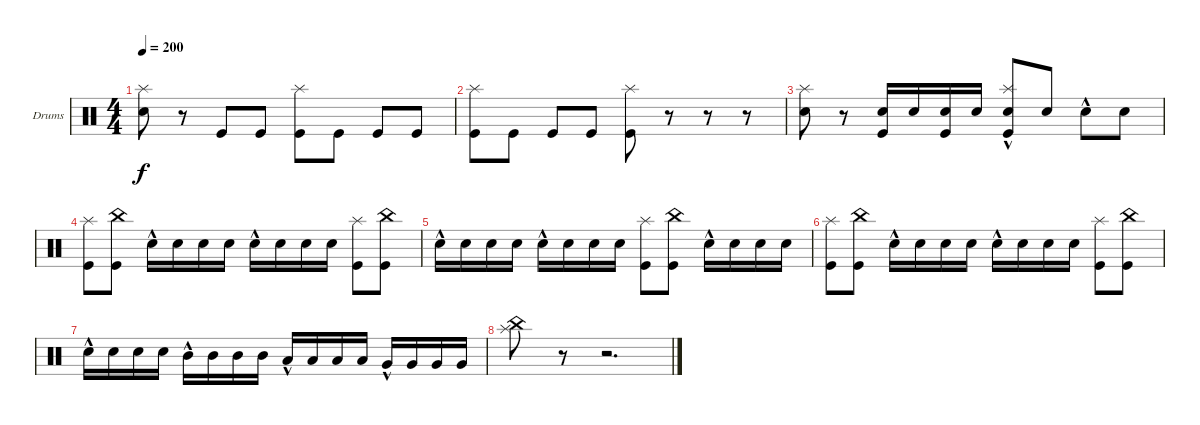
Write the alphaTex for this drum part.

\defaultSystemsLayout 4
\bracketExtendMode groupsimilarinstruments
\firstSystemTrackNameOrientation horizontal
\otherSystemsTrackNameOrientation horizontal
\track ("Drumkit" "Drums") {instrument percussion}
\staff {score}
\articulation defaults
\ts (4 4)
\tempo 200
\clef neutral
\ks c
("Snare (hit) 2" "Splash (hit)").8{dy f} r.8 "Kick (hit)".8 "Kick (hit)".8 ("Kick (hit)" "Splash (hit)").8 "Kick (hit)".8 "Kick (hit)".8 "Kick (hit)".8 |
("Kick (hit)" "Splash (hit)").8 "Kick (hit)".8 "Kick (hit)".8 "Kick (hit)".8 ("Kick (hit)" "Splash (hit)").8 r.8 r.8 r.8 |
("Snare (hit) 2" "Splash (hit)").8 r.8 ("Kick (hit)" "Snare (hit) 2").16 "Snare (hit) 2".16 ("Kick (hit)" "Snare (hit) 2").16 "Snare (hit) 2".16 ("Kick (hit)" "Splash (hit)" "Snare (hit) 2"{hac}).8 "Snare (hit) 2".8 "Snare (hit) 2"{hac}.8 "Snare (hit) 2".8 |
("Kick (hit)" "Splash (hit)").8 ("Kick (hit)" "China (hit)").8 "Snare (hit) 2"{hac}.16 "Snare (hit) 2".16 "Snare (hit) 2".16 "Snare (hit) 2".16 "Snare (hit) 2"{hac}.16 "Snare (hit) 2".16 "Snare (hit) 2".16 "Snare (hit) 2".16 ("Kick (hit)" "Splash (hit)").8 ("Kick (hit)" "China (hit)").8 |
"Snare (hit) 2"{hac}.16 "Snare (hit) 2".16 "Snare (hit) 2".16 "Snare (hit) 2".16 "Snare (hit) 2"{hac}.16 "Snare (hit) 2".16 "Snare (hit) 2".16 "Snare (hit) 2".16 ("Kick (hit)" "Splash (hit)").8 ("Kick (hit)" "China (hit)").8 "Snare (hit) 2"{hac}.16 "Snare (hit) 2".16 "Snare (hit) 2".16 "Snare (hit) 2".16 |
("Kick (hit)" "Splash (hit)").8 ("Kick (hit)" "China (hit)").8 "Snare (hit) 2"{hac}.16 "Snare (hit) 2".16 "Snare (hit) 2".16 "Snare (hit) 2".16 "Snare (hit) 2"{hac}.16 "Snare (hit) 2".16 "Snare (hit) 2".16 "Snare (hit) 2".16 ("Kick (hit)" "Splash (hit)").8 ("Kick (hit)" "China (hit)").8 |
"Snare (hit) 2"{hac}.16 "Snare (hit) 2".16 "Snare (hit) 2".16 "Snare (hit) 2".16 "Mid Tom (hit)"{hac}.16 "Mid Tom (hit)".16 "Mid Tom (hit)".16 "Mid Tom (hit)".16 "Low Tom (hit)"{hac}.16 "Low Tom (hit)".16 "Low Tom (hit)".16 "Low Tom (hit)".16 "Very Low Tom (hit)"{hac}.16 "Very Low Tom (hit)".16 "Very Low Tom (hit)".16 "Very Low Tom (hit)".16 |
("Splash (hit)" "China (hit)").8 r.8 r.2{d}
